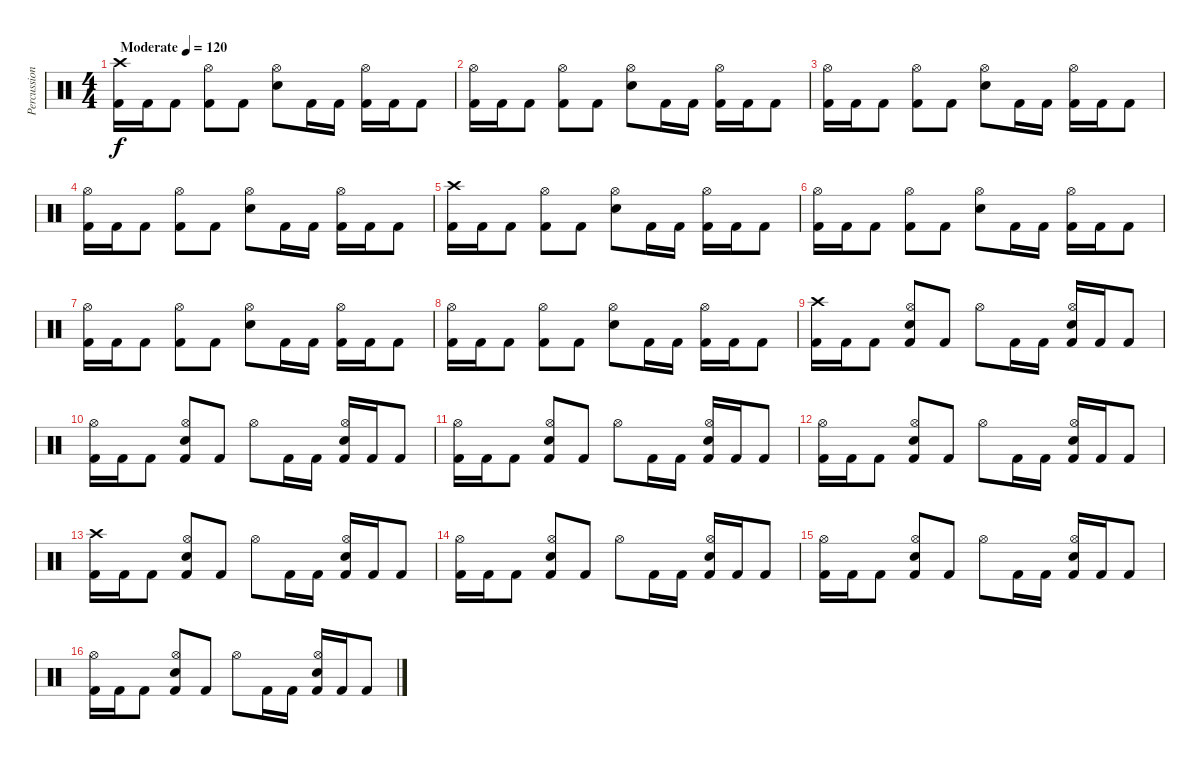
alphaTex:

\track ("Percussion" "Percussion") {instrument percussion}
\staff {score}
\articulation defaults
\ts (4 4)
\tempo (120 "Moderate")
\clef neutral
\ks c
("Kick (hit) 2" "Crash high (hit)").16{dy f} "Kick (hit) 2".16 "Kick (hit) 2".8 ("Kick (hit) 2" "Hi-Hat (open)").8 "Kick (hit) 2".8 ("Electric Snare (hit)" "Hi-Hat (open)").8 "Kick (hit) 2".16 "Kick (hit) 2".16 ("Kick (hit) 2" "Hi-Hat (open)").16 "Kick (hit) 2".16 "Kick (hit) 2".8 |
("Kick (hit) 2" "Hi-Hat (open)").16 "Kick (hit) 2".16 "Kick (hit) 2".8 ("Kick (hit) 2" "Hi-Hat (open)").8 "Kick (hit) 2".8 ("Electric Snare (hit)" "Hi-Hat (open)").8 "Kick (hit) 2".16 "Kick (hit) 2".16 ("Kick (hit) 2" "Hi-Hat (open)").16 "Kick (hit) 2".16 "Kick (hit) 2".8 |
("Kick (hit) 2" "Hi-Hat (open)").16 "Kick (hit) 2".16 "Kick (hit) 2".8 ("Kick (hit) 2" "Hi-Hat (open)").8 "Kick (hit) 2".8 ("Electric Snare (hit)" "Hi-Hat (open)").8 "Kick (hit) 2".16 "Kick (hit) 2".16 ("Kick (hit) 2" "Hi-Hat (open)").16 "Kick (hit) 2".16 "Kick (hit) 2".8 |
("Kick (hit) 2" "Hi-Hat (open)").16 "Kick (hit) 2".16 "Kick (hit) 2".8 ("Kick (hit) 2" "Hi-Hat (open)").8 "Kick (hit) 2".8 ("Electric Snare (hit)" "Hi-Hat (open)").8 "Kick (hit) 2".16 "Kick (hit) 2".16 ("Kick (hit) 2" "Hi-Hat (open)").16 "Kick (hit) 2".16 "Kick (hit) 2".8 |
("Kick (hit) 2" "Crash high (hit)").16 "Kick (hit) 2".16 "Kick (hit) 2".8 ("Kick (hit) 2" "Hi-Hat (open)").8 "Kick (hit) 2".8 ("Electric Snare (hit)" "Hi-Hat (open)").8 "Kick (hit) 2".16 "Kick (hit) 2".16 ("Kick (hit) 2" "Hi-Hat (open)").16 "Kick (hit) 2".16 "Kick (hit) 2".8 |
("Kick (hit) 2" "Hi-Hat (open)").16 "Kick (hit) 2".16 "Kick (hit) 2".8 ("Kick (hit) 2" "Hi-Hat (open)").8 "Kick (hit) 2".8 ("Electric Snare (hit)" "Hi-Hat (open)").8 "Kick (hit) 2".16 "Kick (hit) 2".16 ("Kick (hit) 2" "Hi-Hat (open)").16 "Kick (hit) 2".16 "Kick (hit) 2".8 |
("Kick (hit) 2" "Hi-Hat (open)").16 "Kick (hit) 2".16 "Kick (hit) 2".8 ("Kick (hit) 2" "Hi-Hat (open)").8 "Kick (hit) 2".8 ("Electric Snare (hit)" "Hi-Hat (open)").8 "Kick (hit) 2".16 "Kick (hit) 2".16 ("Kick (hit) 2" "Hi-Hat (open)").16 "Kick (hit) 2".16 "Kick (hit) 2".8 |
("Kick (hit) 2" "Hi-Hat (open)").16 "Kick (hit) 2".16 "Kick (hit) 2".8 ("Kick (hit) 2" "Hi-Hat (open)").8 "Kick (hit) 2".8 ("Electric Snare (hit)" "Hi-Hat (open)").8 "Kick (hit) 2".16 "Kick (hit) 2".16 ("Kick (hit) 2" "Hi-Hat (open)").16 "Kick (hit) 2".16 "Kick (hit) 2".8 |
("Kick (hit) 2" "Crash high (hit)").16 "Kick (hit) 2".16 "Kick (hit) 2".8 ("Kick (hit) 2" "Electric Snare (hit)" "Hi-Hat (open)").8 "Kick (hit) 2".8 "Hi-Hat (open)".8 "Kick (hit) 2".16 "Kick (hit) 2".16 ("Kick (hit) 2" "Hi-Hat (open)" "Electric Snare (hit)").16 "Kick (hit) 2".16 "Kick (hit) 2".8 |
("Kick (hit) 2" "Hi-Hat (open)").16 "Kick (hit) 2".16 "Kick (hit) 2".8 ("Kick (hit) 2" "Electric Snare (hit)" "Hi-Hat (open)").8 "Kick (hit) 2".8 "Hi-Hat (open)".8 "Kick (hit) 2".16 "Kick (hit) 2".16 ("Kick (hit) 2" "Hi-Hat (open)" "Electric Snare (hit)").16 "Kick (hit) 2".16 "Kick (hit) 2".8 |
("Kick (hit) 2" "Hi-Hat (open)").16 "Kick (hit) 2".16 "Kick (hit) 2".8 ("Kick (hit) 2" "Electric Snare (hit)" "Hi-Hat (open)").8 "Kick (hit) 2".8 "Hi-Hat (open)".8 "Kick (hit) 2".16 "Kick (hit) 2".16 ("Kick (hit) 2" "Hi-Hat (open)" "Electric Snare (hit)").16 "Kick (hit) 2".16 "Kick (hit) 2".8 |
("Kick (hit) 2" "Hi-Hat (open)").16 "Kick (hit) 2".16 "Kick (hit) 2".8 ("Kick (hit) 2" "Electric Snare (hit)" "Hi-Hat (open)").8 "Kick (hit) 2".8 "Hi-Hat (open)".8 "Kick (hit) 2".16 "Kick (hit) 2".16 ("Kick (hit) 2" "Hi-Hat (open)" "Electric Snare (hit)").16 "Kick (hit) 2".16 "Kick (hit) 2".8 |
("Kick (hit) 2" "Crash high (hit)").16 "Kick (hit) 2".16 "Kick (hit) 2".8 ("Kick (hit) 2" "Electric Snare (hit)" "Hi-Hat (open)").8 "Kick (hit) 2".8 "Hi-Hat (open)".8 "Kick (hit) 2".16 "Kick (hit) 2".16 ("Kick (hit) 2" "Hi-Hat (open)" "Electric Snare (hit)").16 "Kick (hit) 2".16 "Kick (hit) 2".8 |
("Kick (hit) 2" "Hi-Hat (open)").16 "Kick (hit) 2".16 "Kick (hit) 2".8 ("Kick (hit) 2" "Electric Snare (hit)" "Hi-Hat (open)").8 "Kick (hit) 2".8 "Hi-Hat (open)".8 "Kick (hit) 2".16 "Kick (hit) 2".16 ("Kick (hit) 2" "Hi-Hat (open)" "Electric Snare (hit)").16 "Kick (hit) 2".16 "Kick (hit) 2".8 |
("Kick (hit) 2" "Hi-Hat (open)").16 "Kick (hit) 2".16 "Kick (hit) 2".8 ("Kick (hit) 2" "Electric Snare (hit)" "Hi-Hat (open)").8 "Kick (hit) 2".8 "Hi-Hat (open)".8 "Kick (hit) 2".16 "Kick (hit) 2".16 ("Kick (hit) 2" "Hi-Hat (open)" "Electric Snare (hit)").16 "Kick (hit) 2".16 "Kick (hit) 2".8 |
("Kick (hit) 2" "Hi-Hat (open)").16 "Kick (hit) 2".16 "Kick (hit) 2".8 ("Kick (hit) 2" "Electric Snare (hit)" "Hi-Hat (open)").8 "Kick (hit) 2".8 "Hi-Hat (open)".8 "Kick (hit) 2".16 "Kick (hit) 2".16 ("Kick (hit) 2" "Hi-Hat (open)" "Electric Snare (hit)").16 "Kick (hit) 2".16 "Kick (hit) 2".8
